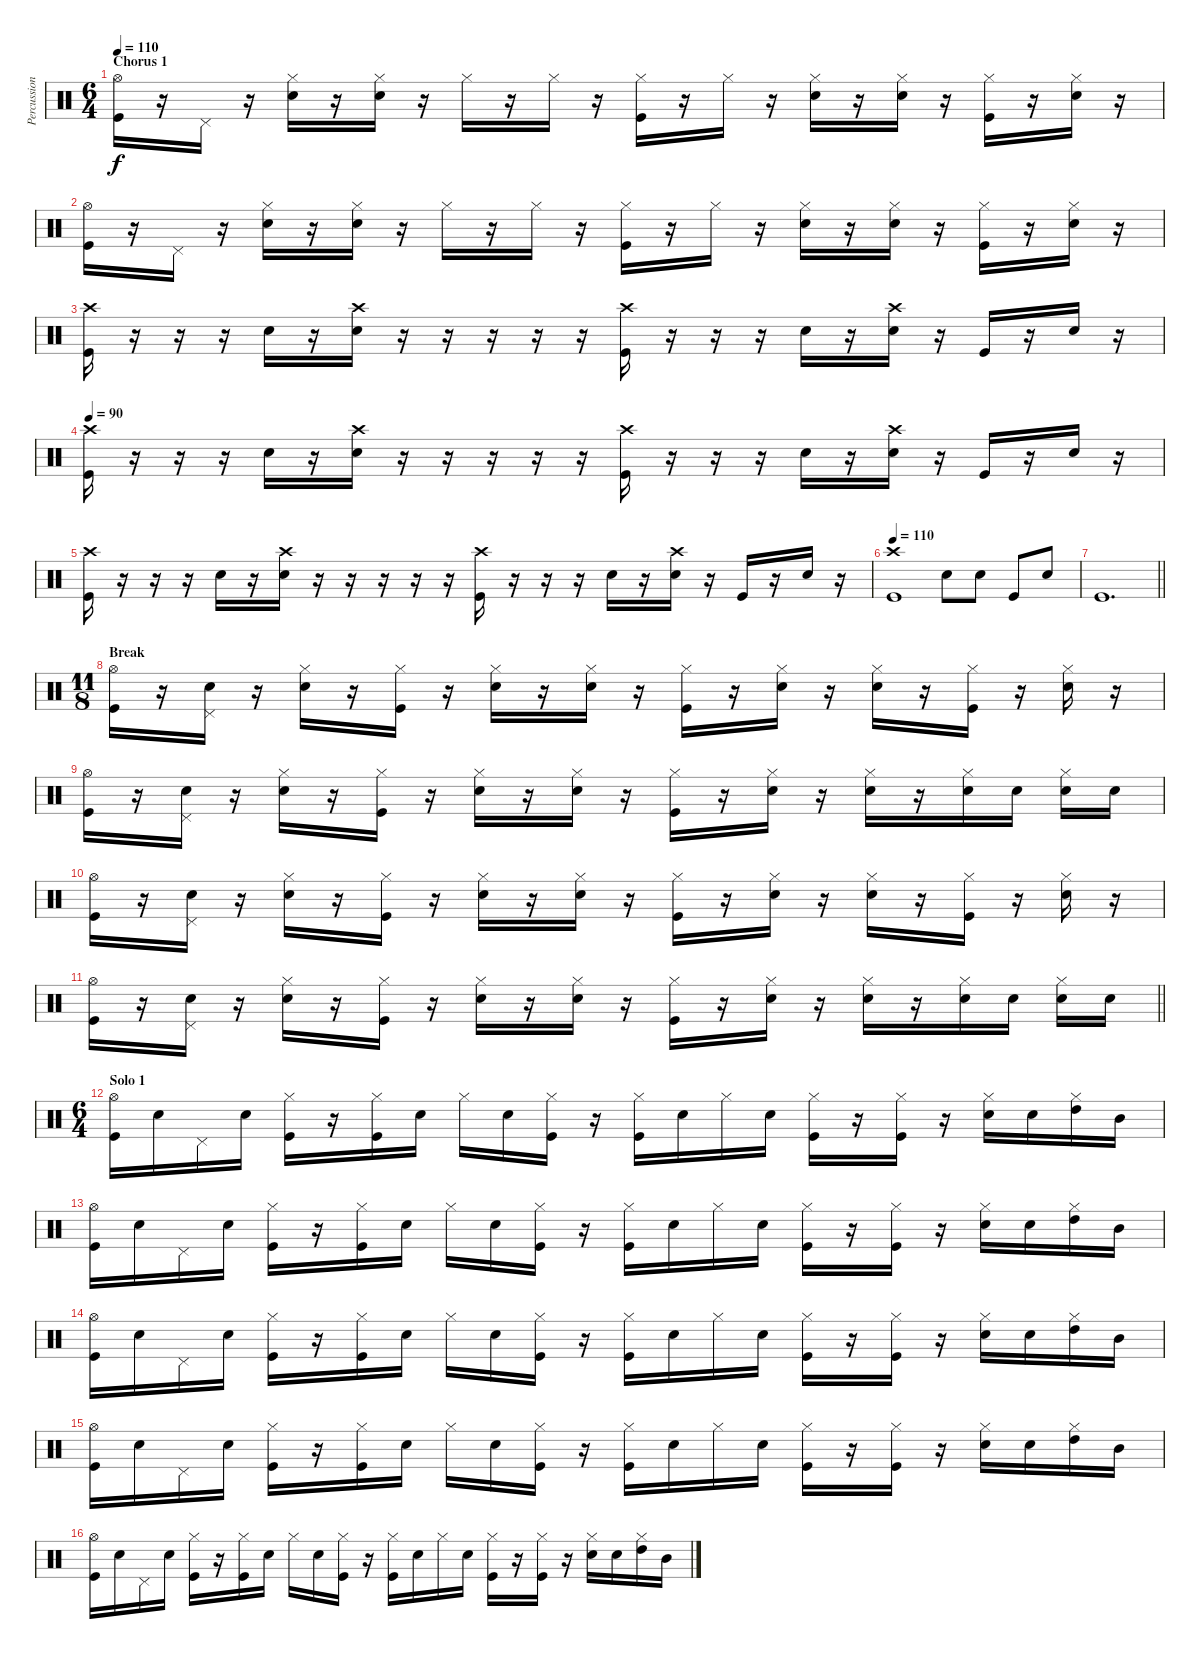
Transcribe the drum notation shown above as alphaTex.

\track ("Percussion 1" "Percussion") {instrument percussion}
\staff {score}
\articulation defaults
\ts (6 4)
\section ("" "Chorus 1")
\tempo 110
\clef neutral
\ks c
("Hi-Hat (open)" "Kick (hit)").16{dy f} r.16 "Pedal Hi-Hat (hit)".16 r.16 ("Hi-Hat (closed)" "Snare (hit) 2").16 r.16 ("Hi-Hat (closed)" "Snare (hit) 2").16 r.16 "Hi-Hat (closed)".16 r.16 "Hi-Hat (closed)".16 r.16 ("Hi-Hat (closed)" "Kick (hit)").16 r.16 "Hi-Hat (closed)".16 r.16 ("Hi-Hat (closed)" "Snare (hit) 2").16 r.16 ("Hi-Hat (closed)" "Snare (hit) 2").16 r.16 ("Hi-Hat (closed)" "Kick (hit)").16 r.16 ("Hi-Hat (closed)" "Snare (hit) 2").16 r.16 |
("Hi-Hat (open)" "Kick (hit)").16 r.16 "Pedal Hi-Hat (hit)".16 r.16 ("Hi-Hat (closed)" "Snare (hit) 2").16 r.16 ("Hi-Hat (closed)" "Snare (hit) 2").16 r.16 "Hi-Hat (closed)".16 r.16 "Hi-Hat (closed)".16 r.16 ("Hi-Hat (closed)" "Kick (hit)").16 r.16 "Hi-Hat (closed)".16 r.16 ("Hi-Hat (closed)" "Snare (hit) 2").16 r.16 ("Hi-Hat (closed)" "Snare (hit) 2").16 r.16 ("Hi-Hat (closed)" "Kick (hit)").16 r.16 ("Hi-Hat (closed)" "Snare (hit) 2").16 r.16 |
("Crash high (hit)" "Kick (hit)").16 r.16 r.16 r.16 "Snare (hit) 2".16 r.16 ("Crash high (hit)" "Snare (hit) 2").16 r.16 r.16 r.16 r.16 r.16 ("Crash high (hit)" "Kick (hit)").16 r.16 r.16 r.16 "Snare (hit) 2".16 r.16 ("Crash high (hit)" "Snare (hit) 2").16 r.16 "Kick (hit)".16 r.16 "Snare (hit) 2".16 r.16 |
\tempo 90
("Crash high (hit)" "Kick (hit)").16 r.16 r.16 r.16 "Snare (hit) 2".16 r.16 ("Crash high (hit)" "Snare (hit) 2").16 r.16 r.16 r.16 r.16 r.16 ("Crash high (hit)" "Kick (hit)").16 r.16 r.16 r.16 "Snare (hit) 2".16 r.16 ("Crash high (hit)" "Snare (hit) 2").16 r.16 "Kick (hit)".16 r.16 "Snare (hit) 2".16 r.16 |
("Crash high (hit)" "Kick (hit)").16 r.16 r.16 r.16 "Snare (hit) 2".16 r.16 ("Crash high (hit)" "Snare (hit) 2").16 r.16 r.16 r.16 r.16 r.16 ("Crash high (hit)" "Kick (hit)").16 r.16 r.16 r.16 "Snare (hit) 2".16 r.16 ("Crash high (hit)" "Snare (hit) 2").16 r.16 "Kick (hit)".16 r.16 "Snare (hit) 2".16 r.16 |
\tempo 110
("Crash high (hit)" "Kick (hit)").1 "Snare (hit) 2".8 "Snare (hit) 2".8 "Kick (hit)".8 "Snare (hit) 2".8 |
\barLineRight lightlight "Kick (hit)".1{d}
|
\ts (11 8)
\section ("" "Break")
("Hi-Hat (open)" "Kick (hit)").16 r.16 ("Pedal Hi-Hat (hit)" "Snare (hit) 2").16 r.16 ("Hi-Hat (closed)" "Snare (hit) 2").16 r.16 ("Hi-Hat (closed)" "Kick (hit)").16 r.16 ("Hi-Hat (closed)" "Snare (hit) 2").16 r.16 ("Hi-Hat (closed)" "Snare (hit) 2").16 r.16 ("Hi-Hat (closed)" "Kick (hit)").16 r.16 ("Hi-Hat (closed)" "Snare (hit) 2").16 r.16 ("Hi-Hat (closed)" "Snare (hit) 2").16 r.16 ("Hi-Hat (closed)" "Kick (hit)").16 r.16 ("Hi-Hat (closed)" "Snare (hit) 2").16 r.16 |
("Hi-Hat (open)" "Kick (hit)").16 r.16 ("Pedal Hi-Hat (hit)" "Snare (hit) 2").16 r.16 ("Hi-Hat (closed)" "Snare (hit) 2").16 r.16 ("Hi-Hat (closed)" "Kick (hit)").16 r.16 ("Hi-Hat (closed)" "Snare (hit) 2").16 r.16 ("Hi-Hat (closed)" "Snare (hit) 2").16 r.16 ("Hi-Hat (closed)" "Kick (hit)").16 r.16 ("Hi-Hat (closed)" "Snare (hit) 2").16 r.16 ("Hi-Hat (closed)" "Snare (hit) 2").16 r.16 ("Hi-Hat (closed)" "Snare (hit) 2").16 "Snare (hit) 2".16 ("Hi-Hat (closed)" "Snare (hit) 2").16 "Snare (hit) 2".16 |
("Hi-Hat (open)" "Kick (hit)").16 r.16 ("Pedal Hi-Hat (hit)" "Snare (hit) 2").16 r.16 ("Hi-Hat (closed)" "Snare (hit) 2").16 r.16 ("Hi-Hat (closed)" "Kick (hit)").16 r.16 ("Hi-Hat (closed)" "Snare (hit) 2").16 r.16 ("Hi-Hat (closed)" "Snare (hit) 2").16 r.16 ("Hi-Hat (closed)" "Kick (hit)").16 r.16 ("Hi-Hat (closed)" "Snare (hit) 2").16 r.16 ("Hi-Hat (closed)" "Snare (hit) 2").16 r.16 ("Hi-Hat (closed)" "Kick (hit)").16 r.16 ("Hi-Hat (closed)" "Snare (hit) 2").16 r.16 |
\barLineRight lightlight
("Hi-Hat (open)" "Kick (hit)").16 r.16 ("Pedal Hi-Hat (hit)" "Snare (hit) 2").16 r.16 ("Hi-Hat (closed)" "Snare (hit) 2").16 r.16 ("Hi-Hat (closed)" "Kick (hit)").16 r.16 ("Hi-Hat (closed)" "Snare (hit) 2").16 r.16 ("Hi-Hat (closed)" "Snare (hit) 2").16 r.16 ("Hi-Hat (closed)" "Kick (hit)").16 r.16 ("Hi-Hat (closed)" "Snare (hit) 2").16 r.16 ("Hi-Hat (closed)" "Snare (hit) 2").16 r.16 ("Hi-Hat (closed)" "Snare (hit) 2").16 "Snare (hit) 2".16 ("Hi-Hat (closed)" "Snare (hit) 2").16 "Snare (hit) 2".16 |
\ts (6 4)
\section ("" "Solo 1")
("Hi-Hat (open)" "Kick (hit)").16 "Snare (hit) 2".16 "Pedal Hi-Hat (hit)".16 "Snare (hit) 2".16 ("Hi-Hat (closed)" "Kick (hit)").16 r.16 ("Hi-Hat (closed)" "Kick (hit)").16 "Snare (hit) 2".16 "Hi-Hat (closed)".16 "Snare (hit) 2".16 ("Hi-Hat (closed)" "Kick (hit)").16 r.16 ("Hi-Hat (closed)" "Kick (hit)").16 "Snare (hit) 2".16 "Hi-Hat (closed)".16 "Snare (hit) 2".16 ("Hi-Hat (closed)" "Kick (hit)").16 r.16 ("Hi-Hat (closed)" "Kick (hit)").16 r.16 ("Hi-Hat (closed)" "Snare (hit) 2").16 "Snare (hit) 2".16 ("Hi-Hat (closed)" "High Tom (hit)").16 "Mid Tom (hit)".16 |
("Hi-Hat (open)" "Kick (hit)").16 "Snare (hit) 2".16 "Pedal Hi-Hat (hit)".16 "Snare (hit) 2".16 ("Hi-Hat (closed)" "Kick (hit)").16 r.16 ("Hi-Hat (closed)" "Kick (hit)").16 "Snare (hit) 2".16 "Hi-Hat (closed)".16 "Snare (hit) 2".16 ("Hi-Hat (closed)" "Kick (hit)").16 r.16 ("Hi-Hat (closed)" "Kick (hit)").16 "Snare (hit) 2".16 "Hi-Hat (closed)".16 "Snare (hit) 2".16 ("Hi-Hat (closed)" "Kick (hit)").16 r.16 ("Hi-Hat (closed)" "Kick (hit)").16 r.16 ("Hi-Hat (closed)" "Snare (hit) 2").16 "Snare (hit) 2".16 ("Hi-Hat (closed)" "High Tom (hit)").16 "Mid Tom (hit)".16 |
("Hi-Hat (open)" "Kick (hit)").16 "Snare (hit) 2".16 "Pedal Hi-Hat (hit)".16 "Snare (hit) 2".16 ("Hi-Hat (closed)" "Kick (hit)").16 r.16 ("Hi-Hat (closed)" "Kick (hit)").16 "Snare (hit) 2".16 "Hi-Hat (closed)".16 "Snare (hit) 2".16 ("Hi-Hat (closed)" "Kick (hit)").16 r.16 ("Hi-Hat (closed)" "Kick (hit)").16 "Snare (hit) 2".16 "Hi-Hat (closed)".16 "Snare (hit) 2".16 ("Hi-Hat (closed)" "Kick (hit)").16 r.16 ("Hi-Hat (closed)" "Kick (hit)").16 r.16 ("Hi-Hat (closed)" "Snare (hit) 2").16 "Snare (hit) 2".16 ("Hi-Hat (closed)" "High Tom (hit)").16 "Mid Tom (hit)".16 |
("Hi-Hat (open)" "Kick (hit)").16 "Snare (hit) 2".16 "Pedal Hi-Hat (hit)".16 "Snare (hit) 2".16 ("Hi-Hat (closed)" "Kick (hit)").16 r.16 ("Hi-Hat (closed)" "Kick (hit)").16 "Snare (hit) 2".16 "Hi-Hat (closed)".16 "Snare (hit) 2".16 ("Hi-Hat (closed)" "Kick (hit)").16 r.16 ("Hi-Hat (closed)" "Kick (hit)").16 "Snare (hit) 2".16 "Hi-Hat (closed)".16 "Snare (hit) 2".16 ("Hi-Hat (closed)" "Kick (hit)").16 r.16 ("Hi-Hat (closed)" "Kick (hit)").16 r.16 ("Hi-Hat (closed)" "Snare (hit) 2").16 "Snare (hit) 2".16 ("Hi-Hat (closed)" "High Tom (hit)").16 "Mid Tom (hit)".16 |
("Hi-Hat (open)" "Kick (hit)").16 "Snare (hit) 2".16 "Pedal Hi-Hat (hit)".16 "Snare (hit) 2".16 ("Hi-Hat (closed)" "Kick (hit)").16 r.16 ("Hi-Hat (closed)" "Kick (hit)").16 "Snare (hit) 2".16 "Hi-Hat (closed)".16 "Snare (hit) 2".16 ("Hi-Hat (closed)" "Kick (hit)").16 r.16 ("Hi-Hat (closed)" "Kick (hit)").16 "Snare (hit) 2".16 "Hi-Hat (closed)".16 "Snare (hit) 2".16 ("Hi-Hat (closed)" "Kick (hit)").16 r.16 ("Hi-Hat (closed)" "Kick (hit)").16 r.16 ("Hi-Hat (closed)" "Snare (hit) 2").16 "Snare (hit) 2".16 ("Hi-Hat (closed)" "High Tom (hit)").16 "Mid Tom (hit)".16
